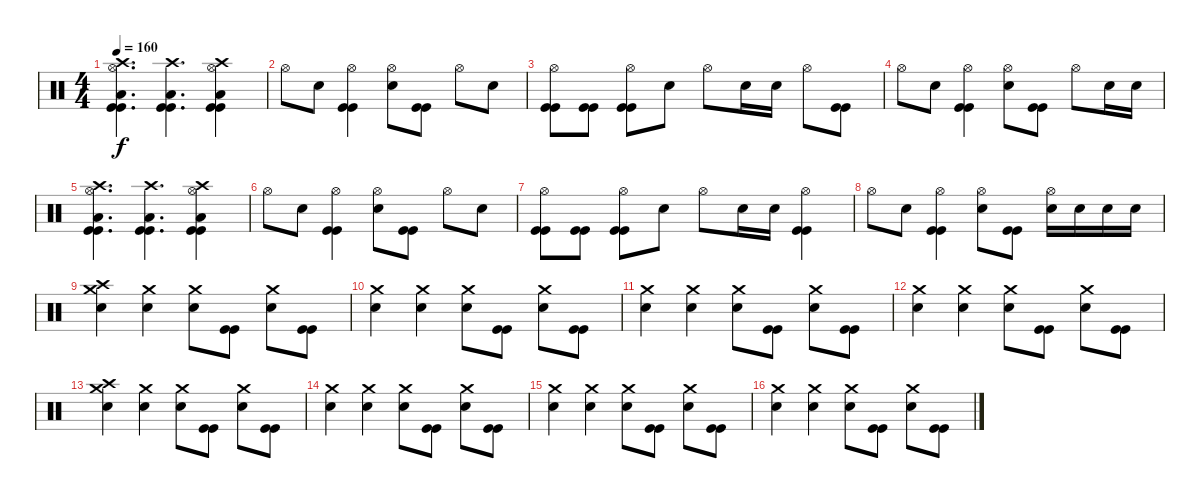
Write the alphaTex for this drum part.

\track ("  " "  ") {instrument percussion}
\staff {score}
\articulation defaults
\ts (4 4)
\tempo 160
\clef neutral
\ks c
("Crash high (hit)" "Hi-Hat (open)" "Low Floor Tom (hit)" "Kick (hit)" "Kick (hit)").4{d dy f} ("Crash high (hit)" "Low Floor Tom (hit)" "Kick (hit)" "Kick (hit)").4{d} ("Crash high (hit)" "Hi-Hat (open)" "Low Floor Tom (hit)" "Kick (hit)" "Kick (hit)").4 |
"Hi-Hat (open)".8 "Electric Snare (hit)".8 ("Hi-Hat (open)" "Kick (hit)" "Kick (hit)").4 ("Hi-Hat (open)" "Electric Snare (hit)").8 ("Kick (hit)" "Kick (hit)").8 "Hi-Hat (open)".8 "Electric Snare (hit)".8 |
("Hi-Hat (open)" "Kick (hit)" "Kick (hit)").8 ("Kick (hit)" "Kick (hit)").8 ("Hi-Hat (open)" "Kick (hit)" "Kick (hit)").8 "Electric Snare (hit)".8 "Hi-Hat (open)".8 "Electric Snare (hit)".16 "Electric Snare (hit)".16 "Hi-Hat (open)".8 ("Kick (hit)" "Kick (hit)").8 |
"Hi-Hat (open)".8 "Electric Snare (hit)".8 ("Hi-Hat (open)" "Kick (hit)" "Kick (hit)").4 ("Hi-Hat (open)" "Electric Snare (hit)").8 ("Kick (hit)" "Kick (hit)").8 "Hi-Hat (open)".8 "Electric Snare (hit)".16 "Electric Snare (hit)".16 |
("Crash high (hit)" "Hi-Hat (open)" "Low Floor Tom (hit)" "Kick (hit)" "Kick (hit)").4{d} ("Crash high (hit)" "Low Floor Tom (hit)" "Kick (hit)" "Kick (hit)").4{d} ("Crash high (hit)" "Hi-Hat (open)" "Low Floor Tom (hit)" "Kick (hit)" "Kick (hit)").4 |
"Hi-Hat (open)".8 "Electric Snare (hit)".8 ("Hi-Hat (open)" "Kick (hit)" "Kick (hit)").4 ("Hi-Hat (open)" "Electric Snare (hit)").8 ("Kick (hit)" "Kick (hit)").8 "Hi-Hat (open)".8 "Electric Snare (hit)".8 |
("Hi-Hat (open)" "Kick (hit)" "Kick (hit)").8 ("Kick (hit)" "Kick (hit)").8 ("Hi-Hat (open)" "Kick (hit)" "Kick (hit)").8 "Electric Snare (hit)".8 "Hi-Hat (open)".8 "Electric Snare (hit)".16 "Electric Snare (hit)".16 ("Hi-Hat (open)" "Kick (hit)" "Kick (hit)").4 |
"Hi-Hat (open)".8 "Electric Snare (hit)".8 ("Hi-Hat (open)" "Kick (hit)" "Kick (hit)").4 ("Hi-Hat (open)" "Electric Snare (hit)").8 ("Kick (hit)" "Kick (hit)").8 ("Hi-Hat (open)" "Electric Snare (hit)").16 "Electric Snare (hit)".16 "Electric Snare (hit)".16 "Electric Snare (hit)".16 |
("Crash high (hit)" "Crash medium (hit)" "Electric Snare (hit)").4 ("Crash medium (hit)" "Electric Snare (hit)").4 ("Crash medium (hit)" "Electric Snare (hit)").8 ("Kick (hit)" "Kick (hit)").8 ("Crash medium (hit)" "Electric Snare (hit)").8 ("Kick (hit)" "Kick (hit)").8 |
("Crash medium (hit)" "Electric Snare (hit)").4 ("Crash medium (hit)" "Electric Snare (hit)").4 ("Crash medium (hit)" "Electric Snare (hit)").8 ("Kick (hit)" "Kick (hit)").8 ("Crash medium (hit)" "Electric Snare (hit)").8 ("Kick (hit)" "Kick (hit)").8 |
("Crash medium (hit)" "Electric Snare (hit)").4 ("Crash medium (hit)" "Electric Snare (hit)").4 ("Crash medium (hit)" "Electric Snare (hit)").8 ("Kick (hit)" "Kick (hit)").8 ("Crash medium (hit)" "Electric Snare (hit)").8 ("Kick (hit)" "Kick (hit)").8 |
("Crash medium (hit)" "Electric Snare (hit)").4 ("Crash medium (hit)" "Electric Snare (hit)").4 ("Crash medium (hit)" "Electric Snare (hit)").8 ("Kick (hit)" "Kick (hit)").8 ("Crash medium (hit)" "Electric Snare (hit)").8 ("Kick (hit)" "Kick (hit)").8 |
("Crash high (hit)" "Crash medium (hit)" "Electric Snare (hit)").4 ("Crash medium (hit)" "Electric Snare (hit)").4 ("Crash medium (hit)" "Electric Snare (hit)").8 ("Kick (hit)" "Kick (hit)").8 ("Crash medium (hit)" "Electric Snare (hit)").8 ("Kick (hit)" "Kick (hit)").8 |
("Crash medium (hit)" "Electric Snare (hit)").4 ("Crash medium (hit)" "Electric Snare (hit)").4 ("Crash medium (hit)" "Electric Snare (hit)").8 ("Kick (hit)" "Kick (hit)").8 ("Crash medium (hit)" "Electric Snare (hit)").8 ("Kick (hit)" "Kick (hit)").8 |
("Crash medium (hit)" "Electric Snare (hit)").4 ("Crash medium (hit)" "Electric Snare (hit)").4 ("Crash medium (hit)" "Electric Snare (hit)").8 ("Kick (hit)" "Kick (hit)").8 ("Crash medium (hit)" "Electric Snare (hit)").8 ("Kick (hit)" "Kick (hit)").8 |
("Crash medium (hit)" "Electric Snare (hit)").4 ("Crash medium (hit)" "Electric Snare (hit)").4 ("Crash medium (hit)" "Electric Snare (hit)").8 ("Kick (hit)" "Kick (hit)").8 ("Crash medium (hit)" "Electric Snare (hit)").8 ("Kick (hit)" "Kick (hit)").8
